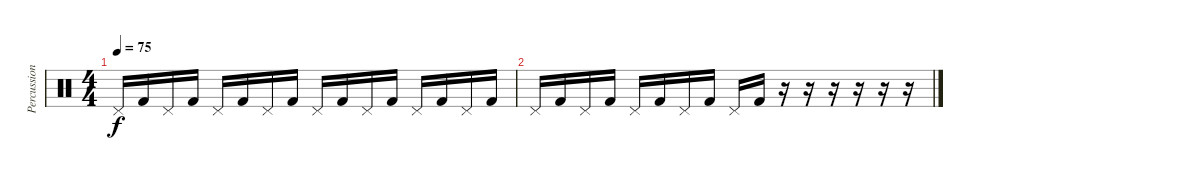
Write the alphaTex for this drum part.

\track ("Percussions" "Percussion") {instrument percussion}
\staff {score}
\articulation defaults
\ts (4 4)
\tempo 75
\clef neutral
\ks c "Pedal Hi-Hat (hit)".16{dy f} "Kick (hit) 2".16 "Pedal Hi-Hat (hit)".16 "Kick (hit) 2".16 "Pedal Hi-Hat (hit)".16 "Kick (hit) 2".16 "Pedal Hi-Hat (hit)".16 "Kick (hit) 2".16 "Pedal Hi-Hat (hit)".16 "Kick (hit) 2".16 "Pedal Hi-Hat (hit)".16 "Kick (hit) 2".16 "Pedal Hi-Hat (hit)".16 "Kick (hit) 2".16 "Pedal Hi-Hat (hit)".16 "Kick (hit) 2".16
|
"Pedal Hi-Hat (hit)".16 "Kick (hit) 2".16 "Pedal Hi-Hat (hit)".16 "Kick (hit) 2".16 "Pedal Hi-Hat (hit)".16 "Kick (hit) 2".16 "Pedal Hi-Hat (hit)".16 "Kick (hit) 2".16 "Pedal Hi-Hat (hit)".16 "Kick (hit) 2".16 r.16 r.16 r.16 r.16 r.16 r.16
